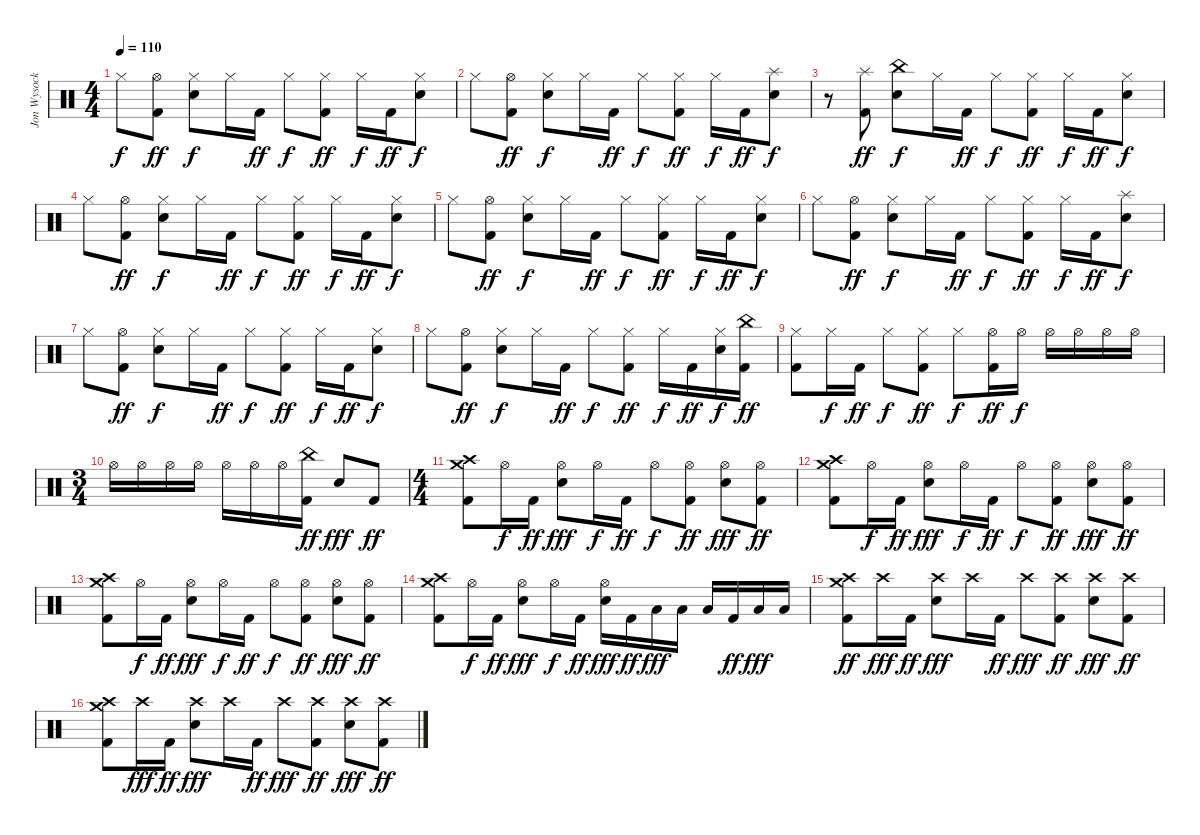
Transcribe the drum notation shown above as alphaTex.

\track ("Jon Wysocki" "Jon Wysock") {instrument percussion}
\staff {score}
\articulation defaults
\ts (4 4)
\tempo 110
\clef neutral
\ks c "Hi-Hat (closed)".8{dy f}
("Hi-Hat (open)" "Kick (hit) 2").8{dy ff} ("Hi-Hat (closed)" "Electric Snare (hit)").8{dy f} "Hi-Hat (closed)".16 "Kick (hit) 2".16{dy ff} "Hi-Hat (closed)".8{dy f} ("Hi-Hat (closed)" "Kick (hit) 2").8{dy ff} "Hi-Hat (closed)".16{dy f} "Kick (hit) 2".16{dy ff} ("Hi-Hat (closed)" "Electric Snare (hit)").8{dy f} |
"Hi-Hat (closed)".8 ("Hi-Hat (open)" "Kick (hit) 2").8{dy ff} ("Hi-Hat (closed)" "Electric Snare (hit)").8{dy f} "Hi-Hat (closed)".16 "Kick (hit) 2".16{dy ff} "Hi-Hat (closed)".8{dy f} ("Hi-Hat (closed)" "Kick (hit) 2").8{dy ff} "Hi-Hat (closed)".16{dy f} "Kick (hit) 2".16{dy ff} ("Splash (hit)" "Electric Snare (hit)").8{dy f} |
r.8 ("Splash (hit)" "Kick (hit) 2").8{dy ff} ("China (hit)" "Electric Snare (hit)").8{dy f} "Hi-Hat (closed)".16 "Kick (hit) 2".16{dy ff} "Hi-Hat (closed)".8{dy f} ("Hi-Hat (closed)" "Kick (hit) 2").8{dy ff} "Hi-Hat (closed)".16{dy f} "Kick (hit) 2".16{dy ff} ("Hi-Hat (closed)" "Electric Snare (hit)").8{dy f} |
"Hi-Hat (closed)".8 ("Hi-Hat (open)" "Kick (hit) 2").8{dy ff} ("Hi-Hat (closed)" "Electric Snare (hit)").8{dy f} "Hi-Hat (closed)".16 "Kick (hit) 2".16{dy ff} "Hi-Hat (closed)".8{dy f} ("Hi-Hat (closed)" "Kick (hit) 2").8{dy ff} "Hi-Hat (closed)".16{dy f} "Kick (hit) 2".16{dy ff} ("Hi-Hat (closed)" "Electric Snare (hit)").8{dy f} |
"Hi-Hat (closed)".8 ("Hi-Hat (open)" "Kick (hit) 2").8{dy ff} ("Hi-Hat (closed)" "Electric Snare (hit)").8{dy f} "Hi-Hat (closed)".16 "Kick (hit) 2".16{dy ff} "Hi-Hat (closed)".8{dy f} ("Hi-Hat (closed)" "Kick (hit) 2").8{dy ff} "Hi-Hat (closed)".16{dy f} "Kick (hit) 2".16{dy ff} ("Hi-Hat (closed)" "Electric Snare (hit)").8{dy f} |
"Hi-Hat (closed)".8 ("Hi-Hat (open)" "Kick (hit) 2").8{dy ff} ("Hi-Hat (closed)" "Electric Snare (hit)").8{dy f} "Hi-Hat (closed)".16 "Kick (hit) 2".16{dy ff} "Hi-Hat (closed)".8{dy f} ("Hi-Hat (closed)" "Kick (hit) 2").8{dy ff} "Hi-Hat (closed)".16{dy f} "Kick (hit) 2".16{dy ff} ("Splash (hit)" "Electric Snare (hit)").8{dy f} |
"Hi-Hat (closed)".8 ("Hi-Hat (open)" "Kick (hit) 2").8{dy ff} ("Hi-Hat (closed)" "Electric Snare (hit)").8{dy f} "Hi-Hat (closed)".16 "Kick (hit) 2".16{dy ff} "Hi-Hat (closed)".8{dy f} ("Hi-Hat (closed)" "Kick (hit) 2").8{dy ff} "Hi-Hat (closed)".16{dy f} "Kick (hit) 2".16{dy ff} ("Hi-Hat (closed)" "Electric Snare (hit)").8{dy f} |
"Hi-Hat (closed)".8 ("Hi-Hat (open)" "Kick (hit) 2").8{dy ff} ("Hi-Hat (closed)" "Electric Snare (hit)").8{dy f} "Hi-Hat (closed)".16 "Kick (hit) 2".16{dy ff} "Hi-Hat (closed)".8{dy f} ("Hi-Hat (closed)" "Kick (hit) 2").8{dy ff} "Hi-Hat (closed)".16{dy f} "Kick (hit) 2".16{dy ff} ("Hi-Hat (closed)" "Electric Snare (hit)").16{dy f} ("China (hit)" "Kick (hit) 2").16{dy ff} |
("Hi-Hat (closed)" "Kick (hit) 2").8 "Hi-Hat (closed)".16{dy f} "Kick (hit) 2".16{dy ff} "Hi-Hat (closed)".8{dy f} ("Hi-Hat (closed)" "Kick (hit) 2").8{dy ff} "Hi-Hat (closed)".8{dy f} ("Hi-Hat (open)" "Kick (hit) 2").16{dy ff} "Hi-Hat (open)".16{dy f} "Hi-Hat (open)".16 "Hi-Hat (open)".16 "Hi-Hat (open)".16 "Hi-Hat (open)".16 |
\ts (3 4)
"Hi-Hat (open)".16 "Hi-Hat (open)".16 "Hi-Hat (open)".16 "Hi-Hat (open)".16 "Hi-Hat (open)".16 "Hi-Hat (open)".16 "Hi-Hat (open)".16 ("China (hit)" "Kick (hit) 2").16{dy ff} "Electric Snare (hit)".8{dy fff} "Kick (hit) 2".8{dy ff} |
\ts (4 4)
("Crash medium (hit)" "Crash high (hit)" "Kick (hit) 2").8 "Hi-Hat (open)".16{dy f} "Kick (hit) 2".16{dy ff} ("Hi-Hat (open)" "Electric Snare (hit)").8{dy fff} "Hi-Hat (open)".16{dy f} "Kick (hit) 2".16{dy ff} "Hi-Hat (open)".8{dy f} ("Hi-Hat (open)" "Kick (hit) 2").8{dy ff} ("Hi-Hat (open)" "Electric Snare (hit)").8{dy fff} ("Hi-Hat (open)" "Kick (hit) 2").8{dy ff} |
("Crash medium (hit)" "Crash high (hit)" "Kick (hit) 2").8 "Hi-Hat (open)".16{dy f} "Kick (hit) 2".16{dy ff} ("Hi-Hat (open)" "Electric Snare (hit)").8{dy fff} "Hi-Hat (open)".16{dy f} "Kick (hit) 2".16{dy ff} "Hi-Hat (open)".8{dy f} ("Hi-Hat (open)" "Kick (hit) 2").8{dy ff} ("Hi-Hat (open)" "Electric Snare (hit)").8{dy fff} ("Hi-Hat (open)" "Kick (hit) 2").8{dy ff} |
("Crash medium (hit)" "Crash high (hit)" "Kick (hit) 2").8 "Hi-Hat (open)".16{dy f} "Kick (hit) 2".16{dy ff} ("Hi-Hat (open)" "Electric Snare (hit)").8{dy fff} "Hi-Hat (open)".16{dy f} "Kick (hit) 2".16{dy ff} "Hi-Hat (open)".8{dy f} ("Hi-Hat (open)" "Kick (hit) 2").8{dy ff} ("Hi-Hat (open)" "Electric Snare (hit)").8{dy fff} ("Hi-Hat (open)" "Kick (hit) 2").8{dy ff} |
("Crash medium (hit)" "Crash high (hit)" "Kick (hit) 2").8 "Hi-Hat (open)".16{dy f} "Kick (hit) 2".16{dy ff} ("Hi-Hat (open)" "Electric Snare (hit)").8{dy fff} "Hi-Hat (open)".16{dy f} "Kick (hit) 2".16{dy ff} ("Hi-Hat (open)" "Electric Snare (hit)").16{dy fff} "Kick (hit) 2".16{dy ff} "Low Tom (hit)".16{dy fff} "Low Tom (hit)".16 "Low Floor Tom (hit)".16 "Kick (hit) 2".16{dy ff} "Low Floor Tom (hit)".16{dy fff} "Low Floor Tom (hit)".16 |
("Crash medium (hit)" "Crash high (hit)" "Kick (hit) 2").8{dy ff} "Crash high (hit)".16{dy fff} "Kick (hit) 2".16{dy ff} ("Crash high (hit)" "Electric Snare (hit)").8{dy fff} "Crash high (hit)".16 "Kick (hit) 2".16{dy ff} "Crash high (hit)".8{dy fff} ("Crash high (hit)" "Kick (hit) 2").8{dy ff} ("Crash high (hit)" "Electric Snare (hit)").8{dy fff} ("Crash high (hit)" "Kick (hit) 2").8{dy ff} |
("Crash medium (hit)" "Crash high (hit)" "Kick (hit) 2").8 "Crash high (hit)".16{dy fff} "Kick (hit) 2".16{dy ff} ("Crash high (hit)" "Electric Snare (hit)").8{dy fff} "Crash high (hit)".16 "Kick (hit) 2".16{dy ff} "Crash high (hit)".8{dy fff} ("Crash high (hit)" "Kick (hit) 2").8{dy ff} ("Crash high (hit)" "Electric Snare (hit)").8{dy fff} ("Crash high (hit)" "Kick (hit) 2").8{dy ff}
